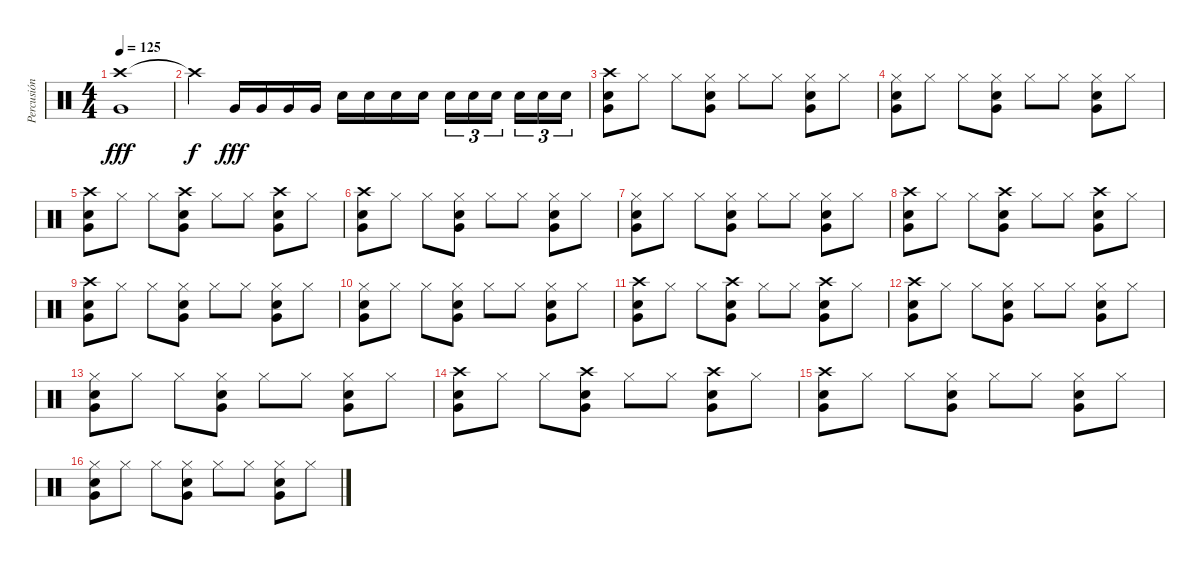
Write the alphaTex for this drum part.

\track ("Percusión" "Percusión") {instrument percussion}
\staff {score}
\articulation defaults
\ts (4 4)
\tempo 125
\clef neutral
\ks c
("Crash high (hit)" "Very Low Tom (hit)").1{dy fff} |
"Crash high (hit)"{t}.4{dy f} "Very Low Tom (hit)".16{dy fff} "Very Low Tom (hit)".16 "Very Low Tom (hit)".16 "Very Low Tom (hit)".16 "Electric Snare (hit)".16 "Electric Snare (hit)".16 "Electric Snare (hit)".16 "Electric Snare (hit)".16 "Snare (hit) 2".16{tu (3 2)} "Snare (hit) 2".16{tu (3 2)} "Snare (hit) 2".16{tu (3 2) beam splitsecondary} "Snare (hit) 2".16{tu (3 2)} "Snare (hit) 2".16{tu (3 2)} "Snare (hit) 2".16{tu (3 2)} |
("Crash high (hit)" "Snare (hit) 2" "Very Low Tom (hit)").8 "Hi-Hat (closed)".8 "Hi-Hat (closed)".8 ("Hi-Hat (closed)" "Snare (hit) 2" "Very Low Tom (hit)").8 "Hi-Hat (closed)".8 "Hi-Hat (closed)".8 ("Hi-Hat (closed)" "Snare (hit) 2" "Very Low Tom (hit)").8 "Hi-Hat (closed)".8 |
("Hi-Hat (closed)" "Snare (hit) 2" "Very Low Tom (hit)").8 "Hi-Hat (closed)".8 "Hi-Hat (closed)".8 ("Hi-Hat (closed)" "Snare (hit) 2" "Very Low Tom (hit)").8 "Hi-Hat (closed)".8 "Hi-Hat (closed)".8 ("Hi-Hat (closed)" "Snare (hit) 2" "Very Low Tom (hit)").8 "Hi-Hat (closed)".8 |
("Crash high (hit)" "Snare (hit) 2" "Very Low Tom (hit)").8 "Hi-Hat (closed)".8 "Hi-Hat (closed)".8 ("Crash high (hit)" "Snare (hit) 2" "Very Low Tom (hit)").8 "Hi-Hat (closed)".8 "Hi-Hat (closed)".8 ("Crash high (hit)" "Snare (hit) 2" "Very Low Tom (hit)").8 "Hi-Hat (closed)".8 |
("Crash high (hit)" "Snare (hit) 2" "Very Low Tom (hit)").8 "Hi-Hat (closed)".8 "Hi-Hat (closed)".8 ("Hi-Hat (closed)" "Snare (hit) 2" "Very Low Tom (hit)").8 "Hi-Hat (closed)".8 "Hi-Hat (closed)".8 ("Hi-Hat (closed)" "Snare (hit) 2" "Very Low Tom (hit)").8 "Hi-Hat (closed)".8 |
("Hi-Hat (closed)" "Snare (hit) 2" "Very Low Tom (hit)").8 "Hi-Hat (closed)".8 "Hi-Hat (closed)".8 ("Hi-Hat (closed)" "Snare (hit) 2" "Very Low Tom (hit)").8 "Hi-Hat (closed)".8 "Hi-Hat (closed)".8 ("Hi-Hat (closed)" "Snare (hit) 2" "Very Low Tom (hit)").8 "Hi-Hat (closed)".8 |
("Crash high (hit)" "Snare (hit) 2" "Very Low Tom (hit)").8 "Hi-Hat (closed)".8 "Hi-Hat (closed)".8 ("Crash high (hit)" "Snare (hit) 2" "Very Low Tom (hit)").8 "Hi-Hat (closed)".8 "Hi-Hat (closed)".8 ("Crash high (hit)" "Snare (hit) 2" "Very Low Tom (hit)").8 "Hi-Hat (closed)".8 |
("Crash high (hit)" "Snare (hit) 2" "Very Low Tom (hit)").8 "Hi-Hat (closed)".8 "Hi-Hat (closed)".8 ("Hi-Hat (closed)" "Snare (hit) 2" "Very Low Tom (hit)").8 "Hi-Hat (closed)".8 "Hi-Hat (closed)".8 ("Hi-Hat (closed)" "Snare (hit) 2" "Very Low Tom (hit)").8 "Hi-Hat (closed)".8 |
("Hi-Hat (closed)" "Snare (hit) 2" "Very Low Tom (hit)").8 "Hi-Hat (closed)".8 "Hi-Hat (closed)".8 ("Hi-Hat (closed)" "Snare (hit) 2" "Very Low Tom (hit)").8 "Hi-Hat (closed)".8 "Hi-Hat (closed)".8 ("Hi-Hat (closed)" "Snare (hit) 2" "Very Low Tom (hit)").8 "Hi-Hat (closed)".8 |
("Crash high (hit)" "Snare (hit) 2" "Very Low Tom (hit)").8 "Hi-Hat (closed)".8 "Hi-Hat (closed)".8 ("Crash high (hit)" "Snare (hit) 2" "Very Low Tom (hit)").8 "Hi-Hat (closed)".8 "Hi-Hat (closed)".8 ("Crash high (hit)" "Snare (hit) 2" "Very Low Tom (hit)").8 "Hi-Hat (closed)".8 |
("Crash high (hit)" "Snare (hit) 2" "Very Low Tom (hit)").8 "Hi-Hat (closed)".8 "Hi-Hat (closed)".8 ("Hi-Hat (closed)" "Snare (hit) 2" "Very Low Tom (hit)").8 "Hi-Hat (closed)".8 "Hi-Hat (closed)".8 ("Hi-Hat (closed)" "Snare (hit) 2" "Very Low Tom (hit)").8 "Hi-Hat (closed)".8 |
("Hi-Hat (closed)" "Snare (hit) 2" "Very Low Tom (hit)").8 "Hi-Hat (closed)".8 "Hi-Hat (closed)".8 ("Hi-Hat (closed)" "Snare (hit) 2" "Very Low Tom (hit)").8 "Hi-Hat (closed)".8 "Hi-Hat (closed)".8 ("Hi-Hat (closed)" "Snare (hit) 2" "Very Low Tom (hit)").8 "Hi-Hat (closed)".8 |
("Crash high (hit)" "Snare (hit) 2" "Very Low Tom (hit)").8 "Hi-Hat (closed)".8 "Hi-Hat (closed)".8 ("Crash high (hit)" "Snare (hit) 2" "Very Low Tom (hit)").8 "Hi-Hat (closed)".8 "Hi-Hat (closed)".8 ("Crash high (hit)" "Snare (hit) 2" "Very Low Tom (hit)").8 "Hi-Hat (closed)".8 |
("Crash high (hit)" "Snare (hit) 2" "Very Low Tom (hit)").8 "Hi-Hat (closed)".8 "Hi-Hat (closed)".8 ("Hi-Hat (closed)" "Snare (hit) 2" "Very Low Tom (hit)").8 "Hi-Hat (closed)".8 "Hi-Hat (closed)".8 ("Hi-Hat (closed)" "Snare (hit) 2" "Very Low Tom (hit)").8 "Hi-Hat (closed)".8 |
("Hi-Hat (closed)" "Snare (hit) 2" "Very Low Tom (hit)").8 "Hi-Hat (closed)".8 "Hi-Hat (closed)".8 ("Hi-Hat (closed)" "Snare (hit) 2" "Very Low Tom (hit)").8 "Hi-Hat (closed)".8 "Hi-Hat (closed)".8 ("Hi-Hat (closed)" "Snare (hit) 2" "Very Low Tom (hit)").8 "Hi-Hat (closed)".8
